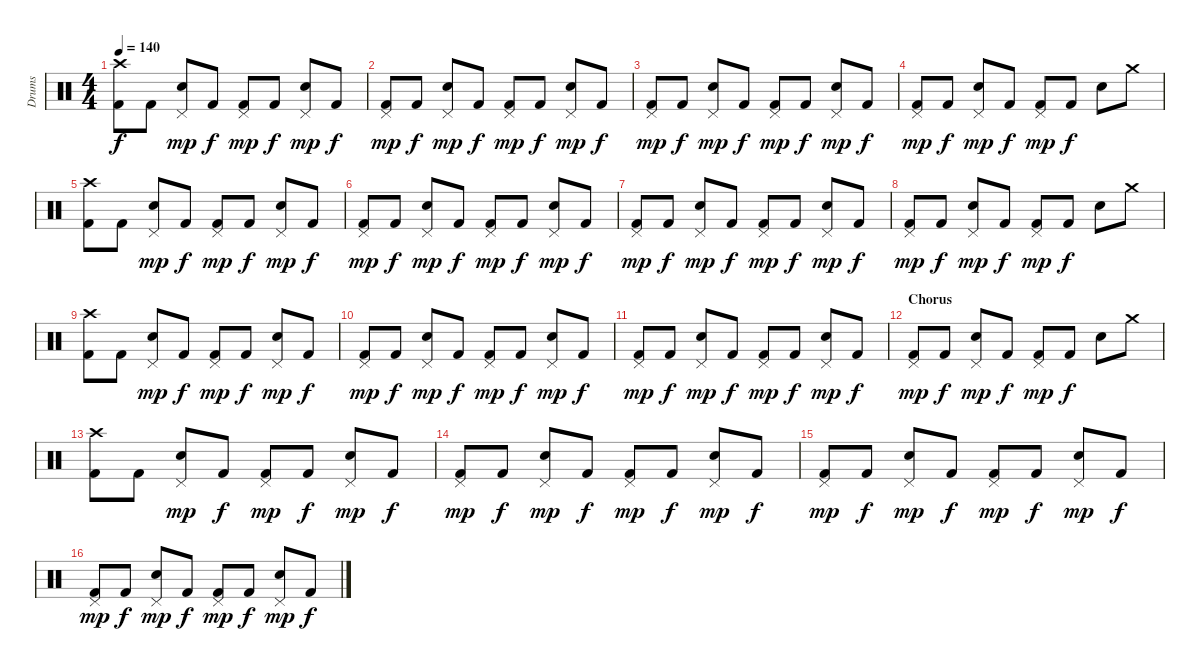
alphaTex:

\track ("Drums" "Drums") {instrument percussion}
\staff {score}
\articulation defaults
\ts (4 4)
\tempo 140
\clef neutral
\ks c
("Crash high (hit)" "Kick (hit) 2").8{dy f} "Kick (hit) 2".8 ("Pedal Hi-Hat (hit)" "Snare (hit) 2").8{dy mp} "Kick (hit) 2".8{dy f} ("Pedal Hi-Hat (hit)" "Kick (hit) 2").8{dy mp} "Kick (hit) 2".8{dy f} ("Pedal Hi-Hat (hit)" "Snare (hit) 2").8{dy mp} "Kick (hit) 2".8{dy f} |
("Pedal Hi-Hat (hit)" "Kick (hit) 2").8{dy mp} "Kick (hit) 2".8{dy f} ("Pedal Hi-Hat (hit)" "Snare (hit) 2").8{dy mp} "Kick (hit) 2".8{dy f} ("Pedal Hi-Hat (hit)" "Kick (hit) 2").8{dy mp} "Kick (hit) 2".8{dy f} ("Pedal Hi-Hat (hit)" "Snare (hit) 2").8{dy mp} "Kick (hit) 2".8{dy f} |
("Pedal Hi-Hat (hit)" "Kick (hit) 2").8{dy mp} "Kick (hit) 2".8{dy f} ("Pedal Hi-Hat (hit)" "Snare (hit) 2").8{dy mp} "Kick (hit) 2".8{dy f} ("Pedal Hi-Hat (hit)" "Kick (hit) 2").8{dy mp} "Kick (hit) 2".8{dy f} ("Pedal Hi-Hat (hit)" "Snare (hit) 2").8{dy mp} "Kick (hit) 2".8{dy f} |
("Pedal Hi-Hat (hit)" "Kick (hit) 2").8{dy mp} "Kick (hit) 2".8{dy f} ("Pedal Hi-Hat (hit)" "Snare (hit) 2").8{dy mp} "Kick (hit) 2".8{dy f} ("Pedal Hi-Hat (hit)" "Kick (hit) 2").8{dy mp} "Kick (hit) 2".8{dy f} "Snare (hit) 2".8 "Crash medium (hit)".8 |
("Crash high (hit)" "Kick (hit) 2").8 "Kick (hit) 2".8 ("Pedal Hi-Hat (hit)" "Snare (hit) 2").8{dy mp} "Kick (hit) 2".8{dy f} ("Pedal Hi-Hat (hit)" "Kick (hit) 2").8{dy mp} "Kick (hit) 2".8{dy f} ("Pedal Hi-Hat (hit)" "Snare (hit) 2").8{dy mp} "Kick (hit) 2".8{dy f} |
("Pedal Hi-Hat (hit)" "Kick (hit) 2").8{dy mp} "Kick (hit) 2".8{dy f} ("Pedal Hi-Hat (hit)" "Snare (hit) 2").8{dy mp} "Kick (hit) 2".8{dy f} ("Pedal Hi-Hat (hit)" "Kick (hit) 2").8{dy mp} "Kick (hit) 2".8{dy f} ("Pedal Hi-Hat (hit)" "Snare (hit) 2").8{dy mp} "Kick (hit) 2".8{dy f} |
("Pedal Hi-Hat (hit)" "Kick (hit) 2").8{dy mp} "Kick (hit) 2".8{dy f} ("Pedal Hi-Hat (hit)" "Snare (hit) 2").8{dy mp} "Kick (hit) 2".8{dy f} ("Pedal Hi-Hat (hit)" "Kick (hit) 2").8{dy mp} "Kick (hit) 2".8{dy f} ("Pedal Hi-Hat (hit)" "Snare (hit) 2").8{dy mp} "Kick (hit) 2".8{dy f} |
("Pedal Hi-Hat (hit)" "Kick (hit) 2").8{dy mp} "Kick (hit) 2".8{dy f} ("Pedal Hi-Hat (hit)" "Snare (hit) 2").8{dy mp} "Kick (hit) 2".8{dy f} ("Pedal Hi-Hat (hit)" "Kick (hit) 2").8{dy mp} "Kick (hit) 2".8{dy f} "Snare (hit) 2".8 "Crash medium (hit)".8 |
("Crash high (hit)" "Kick (hit) 2").8 "Kick (hit) 2".8 ("Pedal Hi-Hat (hit)" "Snare (hit) 2").8{dy mp} "Kick (hit) 2".8{dy f} ("Pedal Hi-Hat (hit)" "Kick (hit) 2").8{dy mp} "Kick (hit) 2".8{dy f} ("Pedal Hi-Hat (hit)" "Snare (hit) 2").8{dy mp} "Kick (hit) 2".8{dy f} |
("Pedal Hi-Hat (hit)" "Kick (hit) 2").8{dy mp} "Kick (hit) 2".8{dy f} ("Pedal Hi-Hat (hit)" "Snare (hit) 2").8{dy mp} "Kick (hit) 2".8{dy f} ("Pedal Hi-Hat (hit)" "Kick (hit) 2").8{dy mp} "Kick (hit) 2".8{dy f} ("Pedal Hi-Hat (hit)" "Snare (hit) 2").8{dy mp} "Kick (hit) 2".8{dy f} |
("Pedal Hi-Hat (hit)" "Kick (hit) 2").8{dy mp} "Kick (hit) 2".8{dy f} ("Pedal Hi-Hat (hit)" "Snare (hit) 2").8{dy mp} "Kick (hit) 2".8{dy f} ("Pedal Hi-Hat (hit)" "Kick (hit) 2").8{dy mp} "Kick (hit) 2".8{dy f} ("Pedal Hi-Hat (hit)" "Snare (hit) 2").8{dy mp} "Kick (hit) 2".8{dy f} |
\section ("" "Chorus")
("Pedal Hi-Hat (hit)" "Kick (hit) 2").8{dy mp} "Kick (hit) 2".8{dy f} ("Pedal Hi-Hat (hit)" "Snare (hit) 2").8{dy mp} "Kick (hit) 2".8{dy f} ("Pedal Hi-Hat (hit)" "Kick (hit) 2").8{dy mp} "Kick (hit) 2".8{dy f} "Snare (hit) 2".8 "Crash medium (hit)".8 |
("Crash high (hit)" "Kick (hit) 2").8 "Kick (hit) 2".8 ("Pedal Hi-Hat (hit)" "Snare (hit) 2").8{dy mp} "Kick (hit) 2".8{dy f} ("Pedal Hi-Hat (hit)" "Kick (hit) 2").8{dy mp} "Kick (hit) 2".8{dy f} ("Pedal Hi-Hat (hit)" "Snare (hit) 2").8{dy mp} "Kick (hit) 2".8{dy f} |
("Pedal Hi-Hat (hit)" "Kick (hit) 2").8{dy mp} "Kick (hit) 2".8{dy f} ("Pedal Hi-Hat (hit)" "Snare (hit) 2").8{dy mp} "Kick (hit) 2".8{dy f} ("Pedal Hi-Hat (hit)" "Kick (hit) 2").8{dy mp} "Kick (hit) 2".8{dy f} ("Pedal Hi-Hat (hit)" "Snare (hit) 2").8{dy mp} "Kick (hit) 2".8{dy f} |
("Pedal Hi-Hat (hit)" "Kick (hit) 2").8{dy mp} "Kick (hit) 2".8{dy f} ("Pedal Hi-Hat (hit)" "Snare (hit) 2").8{dy mp} "Kick (hit) 2".8{dy f} ("Pedal Hi-Hat (hit)" "Kick (hit) 2").8{dy mp} "Kick (hit) 2".8{dy f} ("Pedal Hi-Hat (hit)" "Snare (hit) 2").8{dy mp} "Kick (hit) 2".8{dy f} |
("Pedal Hi-Hat (hit)" "Kick (hit) 2").8{dy mp} "Kick (hit) 2".8{dy f} ("Pedal Hi-Hat (hit)" "Snare (hit) 2").8{dy mp} "Kick (hit) 2".8{dy f} ("Pedal Hi-Hat (hit)" "Kick (hit) 2").8{dy mp} "Kick (hit) 2".8{dy f} ("Pedal Hi-Hat (hit)" "Snare (hit) 2").8{dy mp} "Kick (hit) 2".8{dy f}
